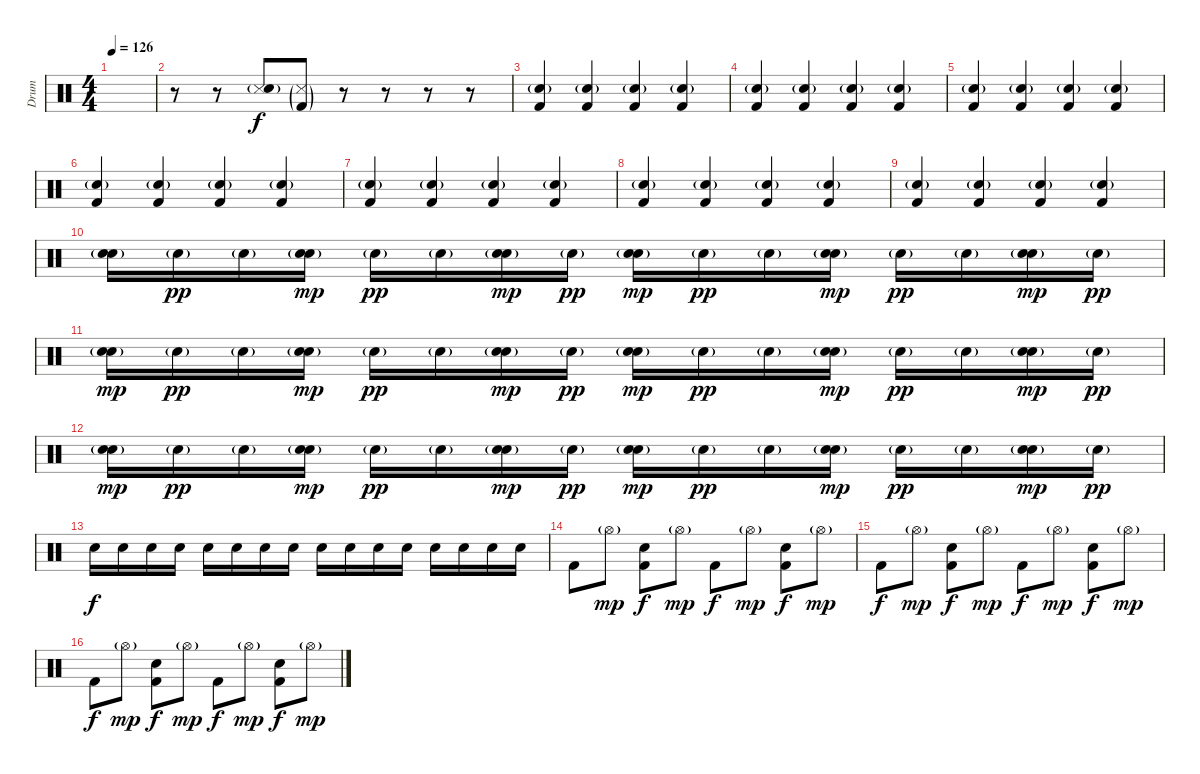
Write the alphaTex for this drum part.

\track ("Drum" "Drum") {instrument percussion}
\staff {score}
\articulation defaults
\ts (4 4)
\tempo 126
\clef neutral
\ks c
|
r.8 r.8 ("Snare (side stick) 3"{g} "Hand Clap (hit)"{g}).8 ("Snare (side stick) 3"{g} "Kick (hit) 2"{g}).8 r.8 r.8 r.8 r.8 |
("Hand Clap (hit)"{g} "Kick (hit) 2").4{volume 14} ("Hand Clap (hit)"{g} "Kick (hit) 2").4 ("Hand Clap (hit)"{g} "Kick (hit) 2").4 ("Hand Clap (hit)"{g} "Kick (hit) 2").4 |
("Hand Clap (hit)"{g} "Kick (hit) 2").4 ("Hand Clap (hit)"{g} "Kick (hit) 2").4 ("Hand Clap (hit)"{g} "Kick (hit) 2").4 ("Hand Clap (hit)"{g} "Kick (hit) 2").4 |
("Hand Clap (hit)"{g} "Kick (hit) 2").4 ("Hand Clap (hit)"{g} "Kick (hit) 2").4 ("Hand Clap (hit)"{g} "Kick (hit) 2").4 ("Hand Clap (hit)"{g} "Kick (hit) 2").4 |
("Hand Clap (hit)"{g} "Kick (hit) 2").4 ("Hand Clap (hit)"{g} "Kick (hit) 2").4 ("Hand Clap (hit)"{g} "Kick (hit) 2").4 ("Hand Clap (hit)"{g} "Kick (hit) 2").4 |
("Hand Clap (hit)"{g} "Kick (hit) 2").4 ("Hand Clap (hit)"{g} "Kick (hit) 2").4 ("Hand Clap (hit)"{g} "Kick (hit) 2").4 ("Hand Clap (hit)"{g} "Kick (hit) 2").4 |
("Hand Clap (hit)"{g} "Kick (hit) 2").4 ("Hand Clap (hit)"{g} "Kick (hit) 2").4 ("Hand Clap (hit)"{g} "Kick (hit) 2").4 ("Hand Clap (hit)"{g} "Kick (hit) 2").4 |
("Hand Clap (hit)"{g} "Kick (hit) 2").4 ("Hand Clap (hit)"{g} "Kick (hit) 2").4 ("Hand Clap (hit)"{g} "Kick (hit) 2").4 ("Hand Clap (hit)"{g} "Kick (hit) 2").4 |
("Snare (hit) 2" "Electric Snare (hit)"{g}).16 "Electric Snare (hit)"{g}.16{dy pp} "Electric Snare (hit)"{g}.16 ("Snare (hit) 2" "Electric Snare (hit)"{g}).16{dy mp} "Electric Snare (hit)"{g}.16{dy pp} "Electric Snare (hit)"{g}.16 ("Snare (hit) 2" "Electric Snare (hit)"{g}).16{dy mp} "Electric Snare (hit)"{g}.16{dy pp} ("Snare (hit) 2" "Electric Snare (hit)"{g}).16{dy mp} "Electric Snare (hit)"{g}.16{dy pp} "Electric Snare (hit)"{g}.16 ("Snare (hit) 2" "Electric Snare (hit)"{g}).16{dy mp} "Electric Snare (hit)"{g}.16{dy pp} "Electric Snare (hit)"{g}.16 ("Snare (hit) 2" "Electric Snare (hit)"{g}).16{dy mp} "Electric Snare (hit)"{g}.16{dy pp} |
("Snare (hit) 2" "Electric Snare (hit)"{g}).16{dy mp} "Electric Snare (hit)"{g}.16{dy pp} "Electric Snare (hit)"{g}.16 ("Snare (hit) 2" "Electric Snare (hit)"{g}).16{dy mp} "Electric Snare (hit)"{g}.16{dy pp} "Electric Snare (hit)"{g}.16 ("Snare (hit) 2" "Electric Snare (hit)"{g}).16{dy mp} "Electric Snare (hit)"{g}.16{dy pp} ("Snare (hit) 2" "Electric Snare (hit)"{g}).16{dy mp} "Electric Snare (hit)"{g}.16{dy pp} "Electric Snare (hit)"{g}.16 ("Snare (hit) 2" "Electric Snare (hit)"{g}).16{dy mp} "Electric Snare (hit)"{g}.16{dy pp} "Electric Snare (hit)"{g}.16 ("Snare (hit) 2" "Electric Snare (hit)"{g}).16{dy mp} "Electric Snare (hit)"{g}.16{dy pp} |
("Snare (hit) 2" "Electric Snare (hit)"{g}).16{dy mp} "Electric Snare (hit)"{g}.16{dy pp} "Electric Snare (hit)"{g}.16 ("Snare (hit) 2" "Electric Snare (hit)"{g}).16{dy mp} "Electric Snare (hit)"{g}.16{dy pp} "Electric Snare (hit)"{g}.16 ("Snare (hit) 2" "Electric Snare (hit)"{g}).16{dy mp} "Electric Snare (hit)"{g}.16{dy pp} ("Snare (hit) 2" "Electric Snare (hit)"{g}).16{dy mp} "Electric Snare (hit)"{g}.16{dy pp} "Electric Snare (hit)"{g}.16 ("Snare (hit) 2" "Electric Snare (hit)"{g}).16{dy mp} "Electric Snare (hit)"{g}.16{dy pp} "Electric Snare (hit)"{g}.16 ("Snare (hit) 2" "Electric Snare (hit)"{g}).16{dy mp} "Electric Snare (hit)"{g}.16{dy pp} |
"Snare (hit) 2".16{dy f} "Snare (hit) 2".16 "Snare (hit) 2".16 "Snare (hit) 2".16 "Snare (hit) 2".16 "Snare (hit) 2".16 "Snare (hit) 2".16 "Snare (hit) 2".16 "Snare (hit) 2".16 "Snare (hit) 2".16 "Snare (hit) 2".16 "Snare (hit) 2".16 "Snare (hit) 2".16 "Snare (hit) 2".16 "Snare (hit) 2".16 "Snare (hit) 2".16 |
"Kick (hit) 2".8{volume 16} "Hi-Hat (open)"{g}.8{dy mp} ("Electric Snare (hit)" "Kick (hit) 2").8{dy f} "Hi-Hat (open)"{g}.8{dy mp} "Kick (hit) 2".8{dy f} "Hi-Hat (open)"{g}.8{dy mp} ("Electric Snare (hit)" "Kick (hit) 2").8{dy f} "Hi-Hat (open)"{g}.8{dy mp} |
"Kick (hit) 2".8{dy f} "Hi-Hat (open)"{g}.8{dy mp} ("Electric Snare (hit)" "Kick (hit) 2").8{dy f} "Hi-Hat (open)"{g}.8{dy mp} "Kick (hit) 2".8{dy f} "Hi-Hat (open)"{g}.8{dy mp} ("Electric Snare (hit)" "Kick (hit) 2").8{dy f} "Hi-Hat (open)"{g}.8{dy mp} |
"Kick (hit) 2".8{dy f} "Hi-Hat (open)"{g}.8{dy mp} ("Electric Snare (hit)" "Kick (hit) 2").8{dy f} "Hi-Hat (open)"{g}.8{dy mp} "Kick (hit) 2".8{dy f} "Hi-Hat (open)"{g}.8{dy mp} ("Electric Snare (hit)" "Kick (hit) 2").8{dy f} "Hi-Hat (open)"{g}.8{dy mp}
